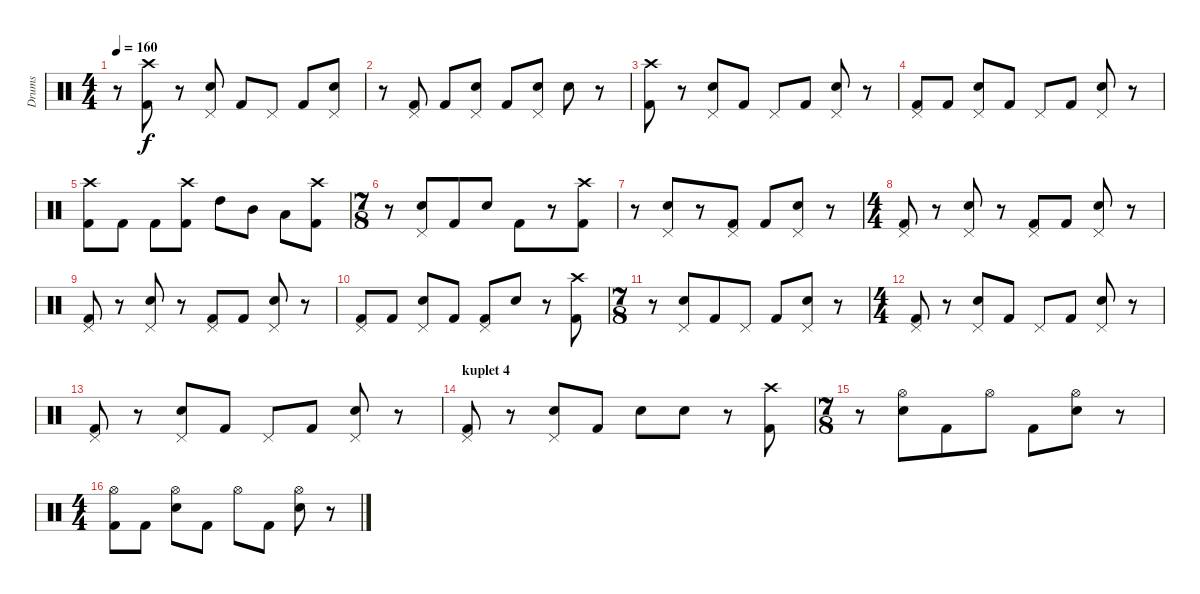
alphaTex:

\track ("Drums" "Drums") {instrument percussion}
\staff {score}
\articulation defaults
\ts (4 4)
\tempo 160
\clef neutral
\ks c
r.8{dy f} ("Kick (hit) 2" "Crash high (hit)").8 r.8 ("Snare (hit) 2" "Pedal Hi-Hat (hit)").8 "Kick (hit) 2".8 "Pedal Hi-Hat (hit)".8 "Kick (hit) 2".8 ("Snare (hit) 2" "Pedal Hi-Hat (hit)").8 |
r.8 ("Kick (hit) 2" "Pedal Hi-Hat (hit)").8 "Kick (hit) 2".8 ("Snare (hit) 2" "Pedal Hi-Hat (hit)").8 "Kick (hit) 2".8 ("Snare (hit) 2" "Pedal Hi-Hat (hit)").8 "Snare (hit) 2".8 r.8 |
("Kick (hit) 2" "Crash high (hit)").8 r.8 ("Snare (hit) 2" "Pedal Hi-Hat (hit)").8 "Kick (hit) 2".8 "Pedal Hi-Hat (hit)".8 "Kick (hit) 2".8 ("Snare (hit) 2" "Pedal Hi-Hat (hit)").8 r.8 |
("Kick (hit) 2" "Pedal Hi-Hat (hit)").8 "Kick (hit) 2".8 ("Snare (hit) 2" "Pedal Hi-Hat (hit)").8 "Kick (hit) 2".8 "Pedal Hi-Hat (hit)".8 "Kick (hit) 2".8 ("Snare (hit) 2" "Pedal Hi-Hat (hit)").8 r.8 |
("Kick (hit) 2" "Crash high (hit)").8 "Kick (hit) 2".8 "Kick (hit) 2".8 ("Kick (hit) 2" "Crash high (hit)").8 "High Tom (hit)".8 "Mid Tom (hit)".8 "Low Tom (hit)".8 ("Kick (hit) 2" "Crash high (hit)").8 |
\ts (7 8)
r.8 ("Snare (hit) 2" "Pedal Hi-Hat (hit)").8 "Kick (hit) 2".8 "Snare (hit) 2".8 "Kick (hit) 2".8 r.8 ("Kick (hit) 2" "Crash high (hit)").8 |
r.8 ("Snare (hit) 2" "Pedal Hi-Hat (hit)").8 r.8 ("Kick (hit) 2" "Pedal Hi-Hat (hit)").8 "Kick (hit) 2".8 ("Snare (hit) 2" "Pedal Hi-Hat (hit)").8 r.8 |
\ts (4 4)
("Kick (hit) 2" "Pedal Hi-Hat (hit)").8 r.8 ("Snare (hit) 2" "Pedal Hi-Hat (hit)").8 r.8 ("Kick (hit) 2" "Pedal Hi-Hat (hit)").8 "Kick (hit) 2".8 ("Snare (hit) 2" "Pedal Hi-Hat (hit)").8 r.8 |
("Kick (hit) 2" "Pedal Hi-Hat (hit)").8 r.8 ("Snare (hit) 2" "Pedal Hi-Hat (hit)").8 r.8 ("Kick (hit) 2" "Pedal Hi-Hat (hit)").8 "Kick (hit) 2".8 ("Snare (hit) 2" "Pedal Hi-Hat (hit)").8 r.8 |
("Kick (hit) 2" "Pedal Hi-Hat (hit)").8 "Kick (hit) 2".8 ("Snare (hit) 2" "Pedal Hi-Hat (hit)").8 "Kick (hit) 2".8 ("Kick (hit) 2" "Pedal Hi-Hat (hit)").8 "Snare (hit) 2".8 r.8 ("Kick (hit) 2" "Crash high (hit)").8 |
\ts (7 8)
r.8 ("Snare (hit) 2" "Pedal Hi-Hat (hit)").8 "Kick (hit) 2".8 "Pedal Hi-Hat (hit)".8 "Kick (hit) 2".8 ("Snare (hit) 2" "Pedal Hi-Hat (hit)").8 r.8 |
\ts (4 4)
("Kick (hit) 2" "Pedal Hi-Hat (hit)").8 r.8 ("Snare (hit) 2" "Pedal Hi-Hat (hit)").8 "Kick (hit) 2".8 "Pedal Hi-Hat (hit)".8 "Kick (hit) 2".8 ("Snare (hit) 2" "Pedal Hi-Hat (hit)").8 r.8 |
("Kick (hit) 2" "Pedal Hi-Hat (hit)").8 r.8 ("Snare (hit) 2" "Pedal Hi-Hat (hit)").8 "Kick (hit) 2".8 "Pedal Hi-Hat (hit)".8 "Kick (hit) 2".8 ("Snare (hit) 2" "Pedal Hi-Hat (hit)").8 r.8 |
\section ("" "kuplet 4")
("Kick (hit) 2" "Pedal Hi-Hat (hit)").8 r.8 ("Snare (hit) 2" "Pedal Hi-Hat (hit)").8 "Kick (hit) 2".8 "Snare (hit) 2".8 "Snare (hit) 2".8 r.8 ("Kick (hit) 2" "Crash high (hit)").8 |
\ts (7 8)
r.8 ("Snare (hit) 2" "Hi-Hat (open)").8 "Kick (hit) 2".8 "Hi-Hat (open)".8 "Kick (hit) 2".8 ("Snare (hit) 2" "Hi-Hat (open)").8 r.8 |
\ts (4 4)
("Kick (hit) 2" "Hi-Hat (open)").8 "Kick (hit) 2".8 ("Snare (hit) 2" "Hi-Hat (open)").8 "Kick (hit) 2".8 "Hi-Hat (open)".8 "Kick (hit) 2".8 ("Snare (hit) 2" "Hi-Hat (open)").8 r.8
